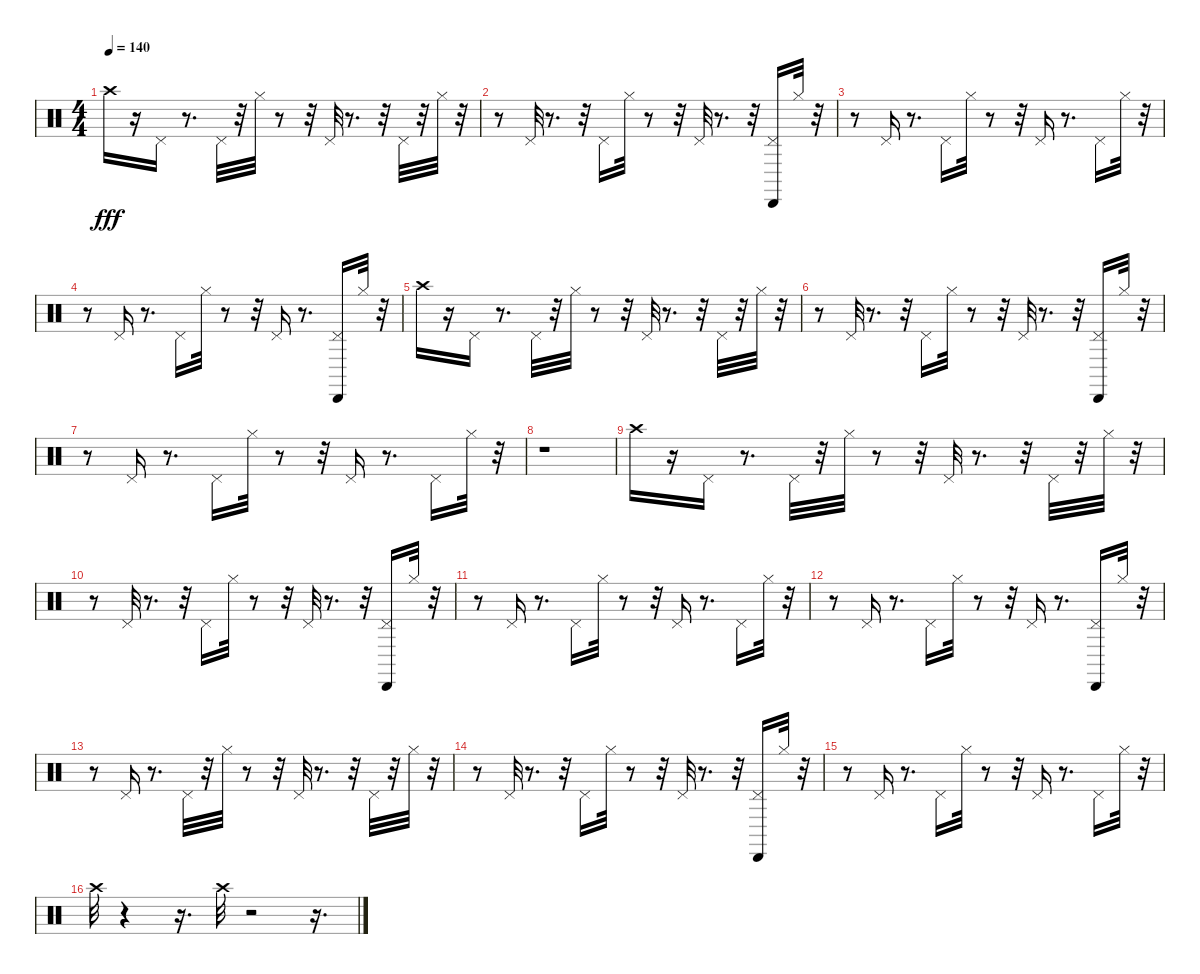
\track "" {instrument percussion}
\staff {score}
\articulation defaults
\ts (4 4)
\tempo 140
\clef neutral
\ks c "Crash high (hit)".16{dy fff}
r.16 "Pedal Hi-Hat (hit)".16 r.8{d} "Pedal Hi-Hat (hit)".32 r.32 "Hi-Hat (closed)".32 r.8 r.32 "Pedal Hi-Hat (hit)".32 r.8{d} r.32 "Pedal Hi-Hat (hit)".32 r.32 "Hi-Hat (closed)".32 r.32 |
r.8 "Pedal Hi-Hat (hit)".32 r.8{d} r.32 "Pedal Hi-Hat (hit)".16 "Hi-Hat (closed)".32 r.8 r.32 "Pedal Hi-Hat (hit)".32 r.8{d} r.32 ("Cabasa (hit)" "Pedal Hi-Hat (hit)").16 "Hi-Hat (closed)".32 r.32 |
r.8 "Pedal Hi-Hat (hit)".16 r.8{d} "Pedal Hi-Hat (hit)".16 "Hi-Hat (closed)".32 r.8 r.32 "Pedal Hi-Hat (hit)".16 r.8{d} "Pedal Hi-Hat (hit)".16 "Hi-Hat (closed)".32 r.32 |
r.8 "Pedal Hi-Hat (hit)".16 r.8{d} "Pedal Hi-Hat (hit)".16 "Hi-Hat (closed)".32 r.8 r.32 "Pedal Hi-Hat (hit)".16 r.8{d} ("Cabasa (hit)" "Pedal Hi-Hat (hit)").16 "Hi-Hat (closed)".32 r.32 |
"Crash high (hit)".16 r.16 "Pedal Hi-Hat (hit)".16 r.8{d} "Pedal Hi-Hat (hit)".32 r.32 "Hi-Hat (closed)".32 r.8 r.32 "Pedal Hi-Hat (hit)".32 r.8{d} r.32 "Pedal Hi-Hat (hit)".32 r.32 "Hi-Hat (closed)".32 r.32 |
r.8 "Pedal Hi-Hat (hit)".32 r.8{d} r.32 "Pedal Hi-Hat (hit)".16 "Hi-Hat (closed)".32 r.8 r.32 "Pedal Hi-Hat (hit)".32 r.8{d} r.32 ("Cabasa (hit)" "Pedal Hi-Hat (hit)").16 "Hi-Hat (closed)".32 r.32 |
r.8 "Pedal Hi-Hat (hit)".16 r.8{d} "Pedal Hi-Hat (hit)".16 "Hi-Hat (closed)".32 r.8 r.32 "Pedal Hi-Hat (hit)".16 r.8{d} "Pedal Hi-Hat (hit)".16 "Hi-Hat (closed)".32 r.32 |
r.1 |
"Crash high (hit)".16 r.16 "Pedal Hi-Hat (hit)".16 r.8{d} "Pedal Hi-Hat (hit)".32 r.32 "Hi-Hat (closed)".32 r.8 r.32 "Pedal Hi-Hat (hit)".32 r.8{d} r.32 "Pedal Hi-Hat (hit)".32 r.32 "Hi-Hat (closed)".32 r.32 |
r.8 "Pedal Hi-Hat (hit)".32 r.8{d} r.32 "Pedal Hi-Hat (hit)".16 "Hi-Hat (closed)".32 r.8 r.32 "Pedal Hi-Hat (hit)".32 r.8{d} r.32 ("Cabasa (hit)" "Pedal Hi-Hat (hit)").16 "Hi-Hat (closed)".32 r.32 |
r.8 "Pedal Hi-Hat (hit)".16 r.8{d} "Pedal Hi-Hat (hit)".16 "Hi-Hat (closed)".32 r.8 r.32 "Pedal Hi-Hat (hit)".16 r.8{d} "Pedal Hi-Hat (hit)".16 "Hi-Hat (closed)".32 r.32 |
r.8 "Pedal Hi-Hat (hit)".16 r.8{d} "Pedal Hi-Hat (hit)".16 "Hi-Hat (closed)".32 r.8 r.32 "Pedal Hi-Hat (hit)".16 r.8{d} ("Cabasa (hit)" "Pedal Hi-Hat (hit)").16 "Hi-Hat (closed)".32 r.32 |
r.8 "Pedal Hi-Hat (hit)".16 r.8{d} "Pedal Hi-Hat (hit)".32 r.32 "Hi-Hat (closed)".32 r.8 r.32 "Pedal Hi-Hat (hit)".32 r.8{d} r.32 "Pedal Hi-Hat (hit)".32 r.32 "Hi-Hat (closed)".32 r.32 |
r.8 "Pedal Hi-Hat (hit)".32 r.8{d} r.32 "Pedal Hi-Hat (hit)".16 "Hi-Hat (closed)".32 r.8 r.32 "Pedal Hi-Hat (hit)".32 r.8{d} r.32 ("Cabasa (hit)" "Pedal Hi-Hat (hit)").16 "Hi-Hat (closed)".32 r.32 |
r.8 "Pedal Hi-Hat (hit)".16 r.8{d} "Pedal Hi-Hat (hit)".16 "Hi-Hat (closed)".32 r.8 r.32 "Pedal Hi-Hat (hit)".16 r.8{d} "Pedal Hi-Hat (hit)".16 "Hi-Hat (closed)".32 r.32 |
"Crash high (hit)".32 r.4 r.16{d} "Crash high (hit)".32 r.2 r.16{d}
